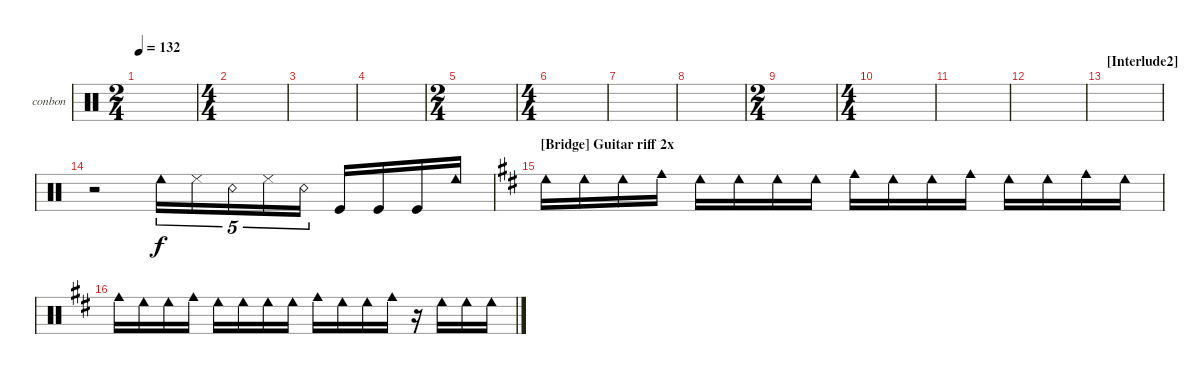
\bracketExtendMode groupsimilarinstruments
\firstSystemTrackNameOrientation horizontal
\otherSystemsTrackNameOrientation horizontal
\track ("Bongos N Congas" "conbon") {instrument percussion}
\staff {score}
\articulation defaults
\ts (2 4)
\tempo 132
\clef neutral
\ks aminor
|
\ts (4 4)
|
|
|
\ts (2 4)
|
\ts (4 4)
|
|
|
\ts (2 4)
|
\ts (4 4)
|
|
|
\section ("" "[Interlude2] ")
|
r.2 "Cowbell low (hit)".16{tu (5 4)} "Cowbell low (tip)".16{tu (5 4)} "Snare (rim shot)".16{tu (5 4)} "Cowbell low (tip)".16{tu (5 4)} "Snare (rim shot)".16{tu (5 4)} "Kick (hit)".16 "Kick (hit)".16 "Kick (hit)".16 "Cowbell low (hit)".16 |
\section ("" "[Bridge] Guitar riff 2x")
\ks bminor "Cowbell low (hit)".16 "Cowbell low (hit)".16 "Cowbell low (hit)".16 "Cowbell medium (hit)".16 "Cowbell low (hit)".16 "Cowbell low (hit)".16 "Cowbell low (hit)".16 "Cowbell low (hit)".16 "Cowbell medium (hit)".16 "Cowbell low (hit)".16 "Cowbell low (hit)".16 "Cowbell medium (hit)".16 "Cowbell low (hit)".16 "Cowbell low (hit)".16 "Cowbell medium (hit)".16 "Cowbell low (hit)".16
|
"Cowbell medium (hit)".16 "Cowbell low (hit)".16 "Cowbell low (hit)".16 "Cowbell medium (hit)".16 "Cowbell low (hit)".16 "Cowbell low (hit)".16 "Cowbell low (hit)".16 "Cowbell low (hit)".16 "Cowbell medium (hit)".16 "Cowbell low (hit)".16 "Cowbell low (hit)".16 "Cowbell medium (hit)".16 r.16 "Cowbell low (hit)".16 "Cowbell low (hit)".16 "Cowbell low (hit)".16
